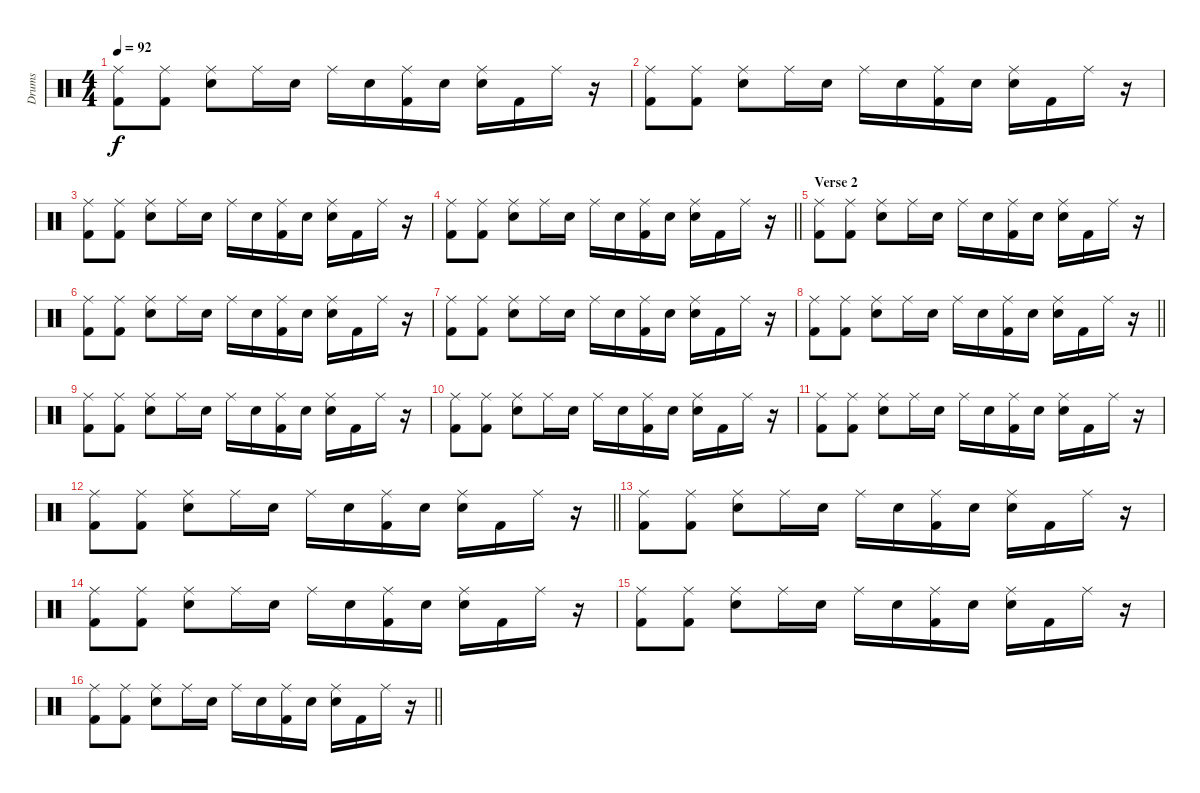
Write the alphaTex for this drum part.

\track ("Drums" "Drums") {instrument percussion}
\staff {score}
\articulation defaults
\ts (4 4)
\tempo 92
\clef neutral
\ks c
("Ride (middle)" "Kick (hit) 2").8{dy f} ("Ride (middle)" "Kick (hit) 2").8 ("Ride (middle)" "Snare (hit) 2").8 "Ride (middle)".16 "Snare (hit) 2".16 "Ride (middle)".16 "Snare (hit) 2".16 ("Ride (middle)" "Kick (hit) 2").16 "Snare (hit) 2".16 ("Ride (middle)" "Snare (hit) 2").16 "Kick (hit) 2".16 "Ride (middle)".16 r.16 |
("Ride (middle)" "Kick (hit) 2").8 ("Ride (middle)" "Kick (hit) 2").8 ("Ride (middle)" "Snare (hit) 2").8 "Ride (middle)".16 "Snare (hit) 2".16 "Ride (middle)".16 "Snare (hit) 2".16 ("Ride (middle)" "Kick (hit) 2").16 "Snare (hit) 2".16 ("Ride (middle)" "Snare (hit) 2").16 "Kick (hit) 2".16 "Ride (middle)".16 r.16 |
("Ride (middle)" "Kick (hit) 2").8 ("Ride (middle)" "Kick (hit) 2").8 ("Ride (middle)" "Snare (hit) 2").8 "Ride (middle)".16 "Snare (hit) 2".16 "Ride (middle)".16 "Snare (hit) 2".16 ("Ride (middle)" "Kick (hit) 2").16 "Snare (hit) 2".16 ("Ride (middle)" "Snare (hit) 2").16 "Kick (hit) 2".16 "Ride (middle)".16 r.16 |
\barLineRight lightlight
("Ride (middle)" "Kick (hit) 2").8 ("Ride (middle)" "Kick (hit) 2").8 ("Ride (middle)" "Snare (hit) 2").8 "Ride (middle)".16 "Snare (hit) 2".16 "Ride (middle)".16 "Snare (hit) 2".16 ("Ride (middle)" "Kick (hit) 2").16 "Snare (hit) 2".16 ("Ride (middle)" "Snare (hit) 2").16 "Kick (hit) 2".16 "Ride (middle)".16 r.16 |
\section ("" "Verse 2")
("Ride (middle)" "Kick (hit) 2").8 ("Ride (middle)" "Kick (hit) 2").8 ("Ride (middle)" "Snare (hit) 2").8 "Ride (middle)".16 "Snare (hit) 2".16 "Ride (middle)".16 "Snare (hit) 2".16 ("Ride (middle)" "Kick (hit) 2").16 "Snare (hit) 2".16 ("Ride (middle)" "Snare (hit) 2").16 "Kick (hit) 2".16 "Ride (middle)".16 r.16 |
("Ride (middle)" "Kick (hit) 2").8 ("Ride (middle)" "Kick (hit) 2").8 ("Ride (middle)" "Snare (hit) 2").8 "Ride (middle)".16 "Snare (hit) 2".16 "Ride (middle)".16 "Snare (hit) 2".16 ("Ride (middle)" "Kick (hit) 2").16 "Snare (hit) 2".16 ("Ride (middle)" "Snare (hit) 2").16 "Kick (hit) 2".16 "Ride (middle)".16 r.16 |
("Ride (middle)" "Kick (hit) 2").8 ("Ride (middle)" "Kick (hit) 2").8 ("Ride (middle)" "Snare (hit) 2").8 "Ride (middle)".16 "Snare (hit) 2".16 "Ride (middle)".16 "Snare (hit) 2".16 ("Ride (middle)" "Kick (hit) 2").16 "Snare (hit) 2".16 ("Ride (middle)" "Snare (hit) 2").16 "Kick (hit) 2".16 "Ride (middle)".16 r.16 |
\barLineRight lightlight
("Ride (middle)" "Kick (hit) 2").8 ("Ride (middle)" "Kick (hit) 2").8 ("Ride (middle)" "Snare (hit) 2").8 "Ride (middle)".16 "Snare (hit) 2".16 "Ride (middle)".16 "Snare (hit) 2".16 ("Ride (middle)" "Kick (hit) 2").16 "Snare (hit) 2".16 ("Ride (middle)" "Snare (hit) 2").16 "Kick (hit) 2".16 "Ride (middle)".16 r.16 |
("Ride (middle)" "Kick (hit) 2").8 ("Ride (middle)" "Kick (hit) 2").8 ("Ride (middle)" "Snare (hit) 2").8 "Ride (middle)".16 "Snare (hit) 2".16 "Ride (middle)".16 "Snare (hit) 2".16 ("Ride (middle)" "Kick (hit) 2").16 "Snare (hit) 2".16 ("Ride (middle)" "Snare (hit) 2").16 "Kick (hit) 2".16 "Ride (middle)".16 r.16 |
("Ride (middle)" "Kick (hit) 2").8 ("Ride (middle)" "Kick (hit) 2").8 ("Ride (middle)" "Snare (hit) 2").8 "Ride (middle)".16 "Snare (hit) 2".16 "Ride (middle)".16 "Snare (hit) 2".16 ("Ride (middle)" "Kick (hit) 2").16 "Snare (hit) 2".16 ("Ride (middle)" "Snare (hit) 2").16 "Kick (hit) 2".16 "Ride (middle)".16 r.16 |
("Ride (middle)" "Kick (hit) 2").8 ("Ride (middle)" "Kick (hit) 2").8 ("Ride (middle)" "Snare (hit) 2").8 "Ride (middle)".16 "Snare (hit) 2".16 "Ride (middle)".16 "Snare (hit) 2".16 ("Ride (middle)" "Kick (hit) 2").16 "Snare (hit) 2".16 ("Ride (middle)" "Snare (hit) 2").16 "Kick (hit) 2".16 "Ride (middle)".16 r.16 |
\barLineRight lightlight
("Ride (middle)" "Kick (hit) 2").8 ("Ride (middle)" "Kick (hit) 2").8 ("Ride (middle)" "Snare (hit) 2").8 "Ride (middle)".16 "Snare (hit) 2".16 "Ride (middle)".16 "Snare (hit) 2".16 ("Ride (middle)" "Kick (hit) 2").16 "Snare (hit) 2".16 ("Ride (middle)" "Snare (hit) 2").16 "Kick (hit) 2".16 "Ride (middle)".16 r.16 |
("Ride (middle)" "Kick (hit) 2").8 ("Ride (middle)" "Kick (hit) 2").8 ("Ride (middle)" "Snare (hit) 2").8 "Ride (middle)".16 "Snare (hit) 2".16 "Ride (middle)".16 "Snare (hit) 2".16 ("Ride (middle)" "Kick (hit) 2").16 "Snare (hit) 2".16 ("Ride (middle)" "Snare (hit) 2").16 "Kick (hit) 2".16 "Ride (middle)".16 r.16 |
("Ride (middle)" "Kick (hit) 2").8 ("Ride (middle)" "Kick (hit) 2").8 ("Ride (middle)" "Snare (hit) 2").8 "Ride (middle)".16 "Snare (hit) 2".16 "Ride (middle)".16 "Snare (hit) 2".16 ("Ride (middle)" "Kick (hit) 2").16 "Snare (hit) 2".16 ("Ride (middle)" "Snare (hit) 2").16 "Kick (hit) 2".16 "Ride (middle)".16 r.16 |
("Ride (middle)" "Kick (hit) 2").8 ("Ride (middle)" "Kick (hit) 2").8 ("Ride (middle)" "Snare (hit) 2").8 "Ride (middle)".16 "Snare (hit) 2".16 "Ride (middle)".16 "Snare (hit) 2".16 ("Ride (middle)" "Kick (hit) 2").16 "Snare (hit) 2".16 ("Ride (middle)" "Snare (hit) 2").16 "Kick (hit) 2".16 "Ride (middle)".16 r.16 |
\barLineRight lightlight
("Ride (middle)" "Kick (hit) 2").8 ("Ride (middle)" "Kick (hit) 2").8 ("Ride (middle)" "Snare (hit) 2").8 "Ride (middle)".16 "Snare (hit) 2".16 "Ride (middle)".16 "Snare (hit) 2".16 ("Ride (middle)" "Kick (hit) 2").16 "Snare (hit) 2".16 ("Ride (middle)" "Snare (hit) 2").16 "Kick (hit) 2".16 "Ride (middle)".16 r.16
